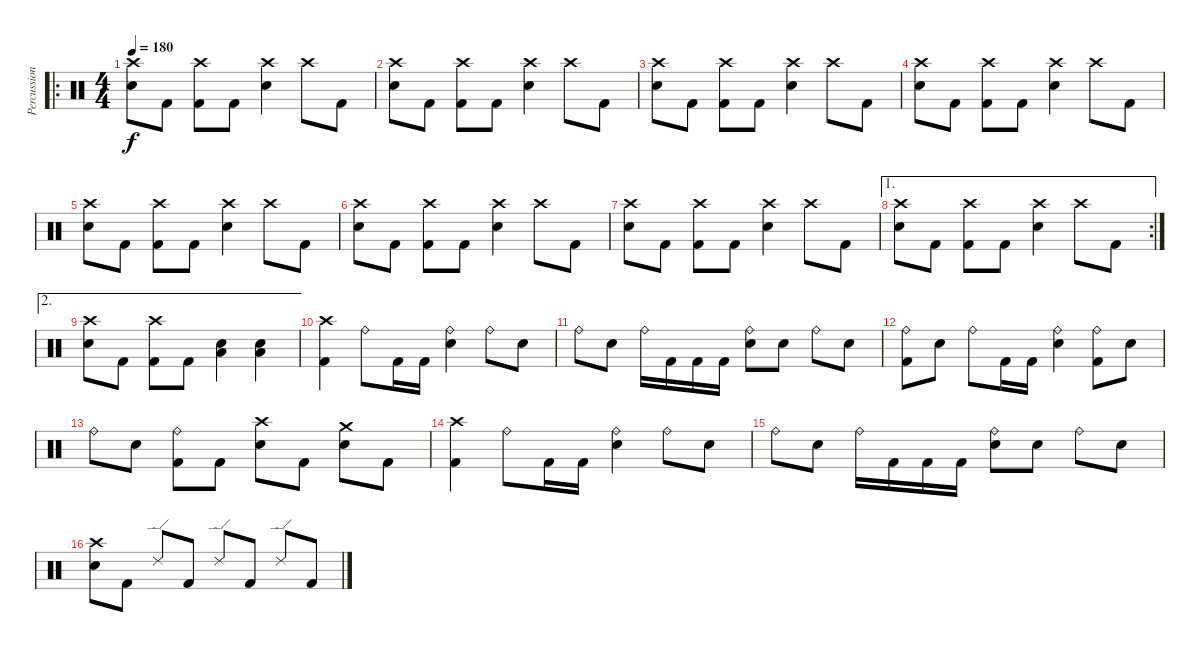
\track ("Percussions" "Percussion") {instrument percussion}
\staff {score}
\articulation defaults
\ro
\ts (4 4)
\tempo 180
\clef neutral
\ks c
("Crash high (hit)" "Snare (hit) 2").8{dy f} "Kick (hit) 2".8 ("Crash high (hit)" "Kick (hit) 2").8 "Kick (hit) 2".8 ("Crash high (hit)" "Snare (hit) 2").4 "Crash high (hit)".8 "Kick (hit) 2".8 |
("Crash high (hit)" "Snare (hit) 2").8 "Kick (hit) 2".8 ("Crash high (hit)" "Kick (hit) 2").8 "Kick (hit) 2".8 ("Crash high (hit)" "Snare (hit) 2").4 "Crash high (hit)".8 "Kick (hit) 2".8 |
("Crash high (hit)" "Snare (hit) 2").8 "Kick (hit) 2".8 ("Crash high (hit)" "Kick (hit) 2").8 "Kick (hit) 2".8 ("Crash high (hit)" "Snare (hit) 2").4 "Crash high (hit)".8 "Kick (hit) 2".8 |
("Crash high (hit)" "Snare (hit) 2").8 "Kick (hit) 2".8 ("Crash high (hit)" "Kick (hit) 2").8 "Kick (hit) 2".8 ("Crash high (hit)" "Snare (hit) 2").4 "Crash high (hit)".8 "Kick (hit) 2".8 |
("Crash high (hit)" "Snare (hit) 2").8 "Kick (hit) 2".8 ("Crash high (hit)" "Kick (hit) 2").8 "Kick (hit) 2".8 ("Crash high (hit)" "Snare (hit) 2").4 "Crash high (hit)".8 "Kick (hit) 2".8 |
("Crash high (hit)" "Snare (hit) 2").8 "Kick (hit) 2".8 ("Crash high (hit)" "Kick (hit) 2").8 "Kick (hit) 2".8 ("Crash high (hit)" "Snare (hit) 2").4 "Crash high (hit)".8 "Kick (hit) 2".8 |
("Crash high (hit)" "Snare (hit) 2").8 "Kick (hit) 2".8 ("Crash high (hit)" "Kick (hit) 2").8 "Kick (hit) 2".8 ("Crash high (hit)" "Snare (hit) 2").4 "Crash high (hit)".8 "Kick (hit) 2".8 |
\ae 1
\rc 2
("Crash high (hit)" "Snare (hit) 2").8 "Kick (hit) 2".8 ("Crash high (hit)" "Kick (hit) 2").8 "Kick (hit) 2".8 ("Crash high (hit)" "Snare (hit) 2").4 "Crash high (hit)".8 "Kick (hit) 2".8 |
\ae 2
("Crash high (hit)" "Snare (hit) 2").8 "Kick (hit) 2".8 ("Crash high (hit)" "Kick (hit) 2").8 "Kick (hit) 2".8 ("Low Floor Tom (hit)" "Snare (hit) 2").4 ("Low Floor Tom (hit)" "Snare (hit) 2").4 |
("Crash high (hit)" "Kick (hit) 2").4 "Ride (bell)".8 "Kick (hit) 2".16 "Kick (hit) 2".16 ("Ride (bell)" "Snare (hit) 2").4 "Ride (bell)".8 "Snare (hit) 2".8 |
"Ride (bell)".8 "Snare (hit) 2".8 "Ride (bell)".16 "Kick (hit) 2".16 "Kick (hit) 2".16 "Kick (hit) 2".16 ("Ride (bell)" "Snare (hit) 2").8 "Snare (hit) 2".8 "Ride (bell)".8 "Snare (hit) 2".8 |
("Ride (bell)" "Kick (hit) 2").8 "Snare (hit) 2".8 "Ride (bell)".8 "Kick (hit) 2".16 "Kick (hit) 2".16 ("Ride (bell)" "Snare (hit) 2").4 ("Ride (bell)" "Kick (hit) 2").8 "Snare (hit) 2".8 |
"Ride (bell)".8 "Snare (hit) 2".8 ("Ride (bell)" "Kick (hit) 2").8 "Kick (hit) 2".8 ("Crash high (hit)" "Snare (hit) 2").8 "Kick (hit) 2".8 ("Crash medium (hit)" "Snare (hit) 2").8 "Kick (hit) 2".8 |
("Crash high (hit)" "Kick (hit) 2").4 "Ride (bell)".8 "Kick (hit) 2".16 "Kick (hit) 2".16 ("Ride (bell)" "Snare (hit) 2").4 "Ride (bell)".8 "Snare (hit) 2".8 |
"Ride (bell)".8 "Snare (hit) 2".8 "Ride (bell)".16 "Kick (hit) 2".16 "Kick (hit) 2".16 "Kick (hit) 2".16 ("Ride (bell)" "Snare (hit) 2").8 "Snare (hit) 2".8 "Ride (bell)".8 "Snare (hit) 2".8 |
("Crash high (hit)" "Snare (hit) 2").8 "Kick (hit) 2".8 "Ride (edge) 2".8 "Kick (hit) 2".8 "Ride (edge) 2".8 "Kick (hit) 2".8 "Ride (edge) 2".8 "Kick (hit) 2".8
